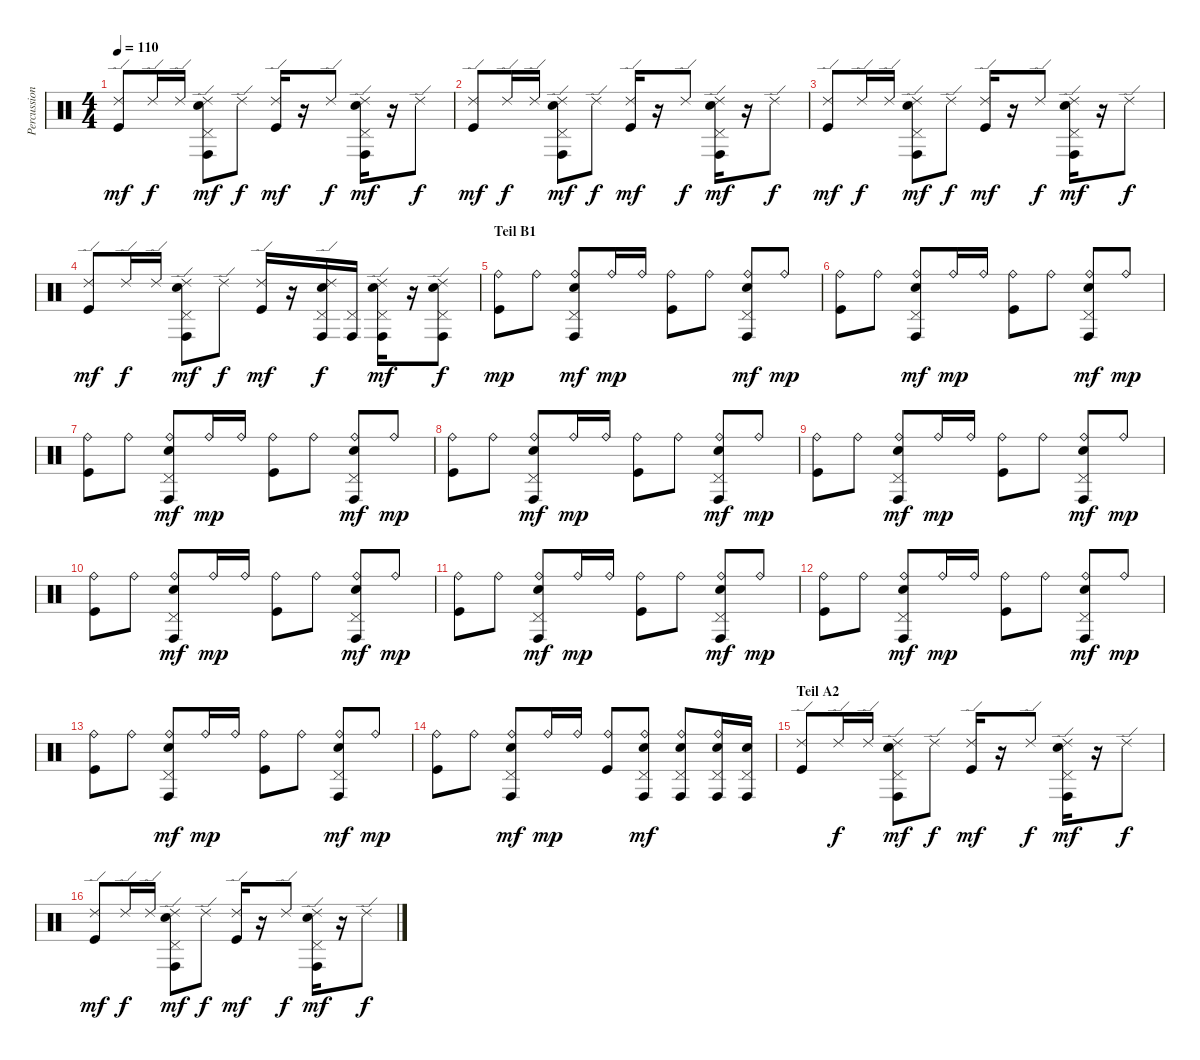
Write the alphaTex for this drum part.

\track ("Percussion" "Percussion") {instrument percussion}
\staff {score}
\articulation defaults
\ts (4 4)
\tempo 110
\clef neutral
\ks c
("Ride (edge) 2" "Kick (hit)").8{dy mf} "Ride (edge) 2".16{dy f} "Ride (edge) 2".16 ("Ride (edge) 2" "Pedal Hi-Hat (hit)" "Conga high (hit)" "Electric Snare (hit)").8{dy mf} "Ride (edge) 2".8{dy f} ("Ride (edge) 2" "Kick (hit)").16{dy mf} r.16 "Ride (edge) 2".8{dy f} ("Ride (edge) 2" "Pedal Hi-Hat (hit)" "Conga high (hit)" "Electric Snare (hit)").16{dy mf} r.16 "Ride (edge) 2".8{dy f} |
("Ride (edge) 2" "Kick (hit)").8{dy mf} "Ride (edge) 2".16{dy f} "Ride (edge) 2".16 ("Ride (edge) 2" "Pedal Hi-Hat (hit)" "Conga high (hit)" "Electric Snare (hit)").8{dy mf} "Ride (edge) 2".8{dy f} ("Ride (edge) 2" "Kick (hit)").16{dy mf} r.16 "Ride (edge) 2".8{dy f} ("Ride (edge) 2" "Pedal Hi-Hat (hit)" "Conga high (hit)" "Electric Snare (hit)").16{dy mf} r.16 "Ride (edge) 2".8{dy f} |
("Ride (edge) 2" "Kick (hit)").8{dy mf} "Ride (edge) 2".16{dy f} "Ride (edge) 2".16 ("Ride (edge) 2" "Pedal Hi-Hat (hit)" "Conga high (hit)" "Electric Snare (hit)").8{dy mf} "Ride (edge) 2".8{dy f} ("Ride (edge) 2" "Kick (hit)").16{dy mf} r.16 "Ride (edge) 2".8{dy f} ("Ride (edge) 2" "Pedal Hi-Hat (hit)" "Conga high (hit)" "Electric Snare (hit)").16{dy mf} r.16 "Ride (edge) 2".8{dy f} |
("Ride (edge) 2" "Kick (hit)").8{dy mf} "Ride (edge) 2".16{dy f} "Ride (edge) 2".16 ("Ride (edge) 2" "Pedal Hi-Hat (hit)" "Conga high (hit)" "Electric Snare (hit)").8{dy mf} "Ride (edge) 2".8{dy f} ("Ride (edge) 2" "Kick (hit)").16{dy mf} r.16 ("Ride (edge) 2" "Pedal Hi-Hat (hit)" "Conga high (hit)" "Electric Snare (hit)").16{dy f} ("Pedal Hi-Hat (hit)" "Conga high (hit)").16 ("Ride (edge) 2" "Pedal Hi-Hat (hit)" "Conga high (hit)" "Electric Snare (hit)").16{dy mf} r.16 ("Ride (edge) 2" "Pedal Hi-Hat (hit)" "Conga high (hit)" "Electric Snare (hit)").8{dy f} |
\section ("" "Teil B1")
("Ride (bell)" "Kick (hit)").8{dy mp} "Ride (bell)".8 ("Ride (bell)" "Pedal Hi-Hat (hit)" "Conga high (hit)" "Electric Snare (hit)").8{dy mf} "Ride (bell)".16{dy mp} "Ride (bell)".16 ("Ride (bell)" "Kick (hit)").8 "Ride (bell)".8 ("Ride (bell)" "Pedal Hi-Hat (hit)" "Conga high (hit)" "Electric Snare (hit)").8{dy mf} "Ride (bell)".8{dy mp} |
("Ride (bell)" "Kick (hit)").8 "Ride (bell)".8 ("Ride (bell)" "Pedal Hi-Hat (hit)" "Conga high (hit)" "Electric Snare (hit)").8{dy mf} "Ride (bell)".16{dy mp} "Ride (bell)".16 ("Ride (bell)" "Kick (hit)").8 "Ride (bell)".8 ("Ride (bell)" "Pedal Hi-Hat (hit)" "Conga high (hit)" "Electric Snare (hit)").8{dy mf} "Ride (bell)".8{dy mp} |
("Ride (bell)" "Kick (hit)").8 "Ride (bell)".8 ("Ride (bell)" "Pedal Hi-Hat (hit)" "Conga high (hit)" "Electric Snare (hit)").8{dy mf} "Ride (bell)".16{dy mp} "Ride (bell)".16 ("Ride (bell)" "Kick (hit)").8 "Ride (bell)".8 ("Ride (bell)" "Pedal Hi-Hat (hit)" "Conga high (hit)" "Electric Snare (hit)").8{dy mf} "Ride (bell)".8{dy mp} |
("Ride (bell)" "Kick (hit)").8 "Ride (bell)".8 ("Ride (bell)" "Pedal Hi-Hat (hit)" "Conga high (hit)" "Electric Snare (hit)").8{dy mf} "Ride (bell)".16{dy mp} "Ride (bell)".16 ("Ride (bell)" "Kick (hit)").8 "Ride (bell)".8 ("Ride (bell)" "Pedal Hi-Hat (hit)" "Conga high (hit)" "Electric Snare (hit)").8{dy mf} "Ride (bell)".8{dy mp} |
("Ride (bell)" "Kick (hit)").8 "Ride (bell)".8 ("Ride (bell)" "Pedal Hi-Hat (hit)" "Conga high (hit)" "Electric Snare (hit)").8{dy mf} "Ride (bell)".16{dy mp} "Ride (bell)".16 ("Ride (bell)" "Kick (hit)").8 "Ride (bell)".8 ("Ride (bell)" "Pedal Hi-Hat (hit)" "Conga high (hit)" "Electric Snare (hit)").8{dy mf} "Ride (bell)".8{dy mp} |
("Ride (bell)" "Kick (hit)").8 "Ride (bell)".8 ("Ride (bell)" "Pedal Hi-Hat (hit)" "Conga high (hit)" "Electric Snare (hit)").8{dy mf} "Ride (bell)".16{dy mp} "Ride (bell)".16 ("Ride (bell)" "Kick (hit)").8 "Ride (bell)".8 ("Ride (bell)" "Pedal Hi-Hat (hit)" "Conga high (hit)" "Electric Snare (hit)").8{dy mf} "Ride (bell)".8{dy mp} |
("Ride (bell)" "Kick (hit)").8 "Ride (bell)".8 ("Ride (bell)" "Pedal Hi-Hat (hit)" "Conga high (hit)" "Electric Snare (hit)").8{dy mf} "Ride (bell)".16{dy mp} "Ride (bell)".16 ("Ride (bell)" "Kick (hit)").8 "Ride (bell)".8 ("Ride (bell)" "Pedal Hi-Hat (hit)" "Conga high (hit)" "Electric Snare (hit)").8{dy mf} "Ride (bell)".8{dy mp} |
("Ride (bell)" "Kick (hit)").8 "Ride (bell)".8 ("Ride (bell)" "Pedal Hi-Hat (hit)" "Conga high (hit)" "Electric Snare (hit)").8{dy mf} "Ride (bell)".16{dy mp} "Ride (bell)".16 ("Ride (bell)" "Kick (hit)").8 "Ride (bell)".8 ("Ride (bell)" "Pedal Hi-Hat (hit)" "Conga high (hit)" "Electric Snare (hit)").8{dy mf} "Ride (bell)".8{dy mp} |
("Ride (bell)" "Kick (hit)").8 "Ride (bell)".8 ("Ride (bell)" "Pedal Hi-Hat (hit)" "Conga high (hit)" "Electric Snare (hit)").8{dy mf} "Ride (bell)".16{dy mp} "Ride (bell)".16 ("Ride (bell)" "Kick (hit)").8 "Ride (bell)".8 ("Ride (bell)" "Pedal Hi-Hat (hit)" "Conga high (hit)" "Electric Snare (hit)").8{dy mf} "Ride (bell)".8{dy mp} |
("Ride (bell)" "Kick (hit)").8 "Ride (bell)".8 ("Ride (bell)" "Pedal Hi-Hat (hit)" "Conga high (hit)" "Electric Snare (hit)").8{dy mf} "Ride (bell)".16{dy mp} "Ride (bell)".16 ("Ride (bell)" "Kick (hit)").8 ("Ride (bell)" "Pedal Hi-Hat (hit)" "Conga high (hit)" "Electric Snare (hit)").8{dy mf} ("Ride (bell)" "Pedal Hi-Hat (hit)" "Conga high (hit)" "Electric Snare (hit)").8 ("Ride (bell)" "Pedal Hi-Hat (hit)" "Conga high (hit)" "Electric Snare (hit)").16 ("Pedal Hi-Hat (hit)" "Conga high (hit)" "Electric Snare (hit)").16 |
\section ("" "Teil A2")
("Ride (edge) 2" "Kick (hit)").8 "Ride (edge) 2".16{dy f} "Ride (edge) 2".16 ("Ride (edge) 2" "Pedal Hi-Hat (hit)" "Conga high (hit)" "Electric Snare (hit)").8{dy mf} "Ride (edge) 2".8{dy f} ("Ride (edge) 2" "Kick (hit)").16{dy mf} r.16 "Ride (edge) 2".8{dy f} ("Ride (edge) 2" "Pedal Hi-Hat (hit)" "Conga high (hit)" "Electric Snare (hit)").16{dy mf} r.16 "Ride (edge) 2".8{dy f} |
("Ride (edge) 2" "Kick (hit)").8{dy mf} "Ride (edge) 2".16{dy f} "Ride (edge) 2".16 ("Ride (edge) 2" "Pedal Hi-Hat (hit)" "Conga high (hit)" "Electric Snare (hit)").8{dy mf} "Ride (edge) 2".8{dy f} ("Ride (edge) 2" "Kick (hit)").16{dy mf} r.16 "Ride (edge) 2".8{dy f} ("Ride (edge) 2" "Pedal Hi-Hat (hit)" "Conga high (hit)" "Electric Snare (hit)").16{dy mf} r.16 "Ride (edge) 2".8{dy f}
